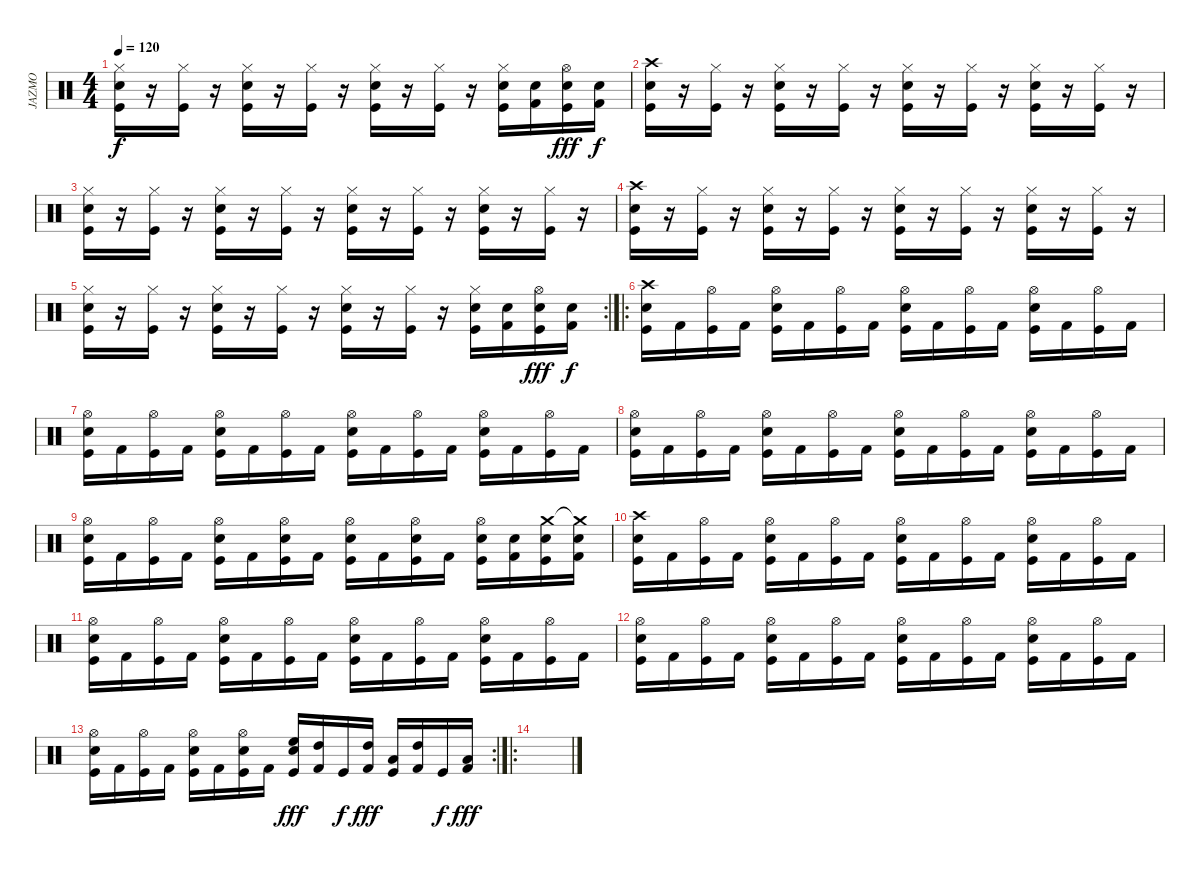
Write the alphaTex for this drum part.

\track ("JAZMO" "JAZMO") {instrument percussion}
\staff {score}
\articulation defaults
\ts (4 4)
\tempo 120
\clef neutral
\ks c
("Hi-Hat (closed)" "Electric Snare (hit)" "Kick (hit)").16{dy f} r.16 ("Hi-Hat (closed)" "Kick (hit)").16 r.16 ("Hi-Hat (closed)" "Electric Snare (hit)" "Kick (hit)").16 r.16 ("Hi-Hat (closed)" "Kick (hit)").16 r.16 ("Hi-Hat (closed)" "Electric Snare (hit)" "Kick (hit)").16 r.16 ("Hi-Hat (closed)" "Kick (hit)").16 r.16 ("Hi-Hat (closed)" "Electric Snare (hit)" "Kick (hit)").16 ("Electric Snare (hit)" "Kick (hit) 2").16 ("Hi-Hat (open)" "Electric Snare (hit)" "Kick (hit)").16{dy fff} ("Electric Snare (hit)" "Kick (hit) 2").16{dy f} |
("Crash high (hit)" "Electric Snare (hit)" "Kick (hit)").16 r.16 ("Hi-Hat (closed)" "Kick (hit)").16 r.16 ("Hi-Hat (closed)" "Electric Snare (hit)" "Kick (hit)").16 r.16 ("Hi-Hat (closed)" "Kick (hit)").16 r.16 ("Hi-Hat (closed)" "Electric Snare (hit)" "Kick (hit)").16 r.16 ("Hi-Hat (closed)" "Kick (hit)").16 r.16 ("Hi-Hat (closed)" "Electric Snare (hit)" "Kick (hit)").16 r.16 ("Hi-Hat (closed)" "Kick (hit)").16 r.16 |
("Hi-Hat (closed)" "Electric Snare (hit)" "Kick (hit)").16 r.16 ("Hi-Hat (closed)" "Kick (hit)").16 r.16 ("Hi-Hat (closed)" "Electric Snare (hit)" "Kick (hit)").16 r.16 ("Hi-Hat (closed)" "Kick (hit)").16 r.16 ("Hi-Hat (closed)" "Electric Snare (hit)" "Kick (hit)").16 r.16 ("Hi-Hat (closed)" "Kick (hit)").16 r.16 ("Hi-Hat (closed)" "Electric Snare (hit)" "Kick (hit)").16 r.16 ("Hi-Hat (closed)" "Kick (hit)").16 r.16 |
("Crash high (hit)" "Electric Snare (hit)" "Kick (hit)").16 r.16 ("Hi-Hat (closed)" "Kick (hit)").16 r.16 ("Hi-Hat (closed)" "Electric Snare (hit)" "Kick (hit)").16 r.16 ("Hi-Hat (closed)" "Kick (hit)").16 r.16 ("Hi-Hat (closed)" "Electric Snare (hit)" "Kick (hit)").16 r.16 ("Hi-Hat (closed)" "Kick (hit)").16 r.16 ("Hi-Hat (closed)" "Electric Snare (hit)" "Kick (hit)").16 r.16 ("Hi-Hat (closed)" "Kick (hit)").16 r.16 |
\rc 2
("Hi-Hat (closed)" "Electric Snare (hit)" "Kick (hit)").16 r.16 ("Hi-Hat (closed)" "Kick (hit)").16 r.16 ("Hi-Hat (closed)" "Electric Snare (hit)" "Kick (hit)").16 r.16 ("Hi-Hat (closed)" "Kick (hit)").16 r.16 ("Hi-Hat (closed)" "Electric Snare (hit)" "Kick (hit)").16 r.16 ("Hi-Hat (closed)" "Kick (hit)").16 r.16 ("Hi-Hat (closed)" "Electric Snare (hit)" "Kick (hit)").16 ("Electric Snare (hit)" "Kick (hit) 2").16 ("Hi-Hat (open)" "Electric Snare (hit)" "Kick (hit)").16{dy fff} ("Electric Snare (hit)" "Kick (hit) 2").16{dy f} |
\ro
("Crash high (hit)" "Electric Snare (hit)" "Kick (hit)").16 "Kick (hit) 2".16 ("Hi-Hat (open)" "Kick (hit)").16 "Kick (hit) 2".16 ("Hi-Hat (open)" "Electric Snare (hit)" "Kick (hit)").16 "Kick (hit) 2".16 ("Hi-Hat (open)" "Kick (hit)").16 "Kick (hit) 2".16 ("Hi-Hat (open)" "Electric Snare (hit)" "Kick (hit)").16 "Kick (hit) 2".16 ("Hi-Hat (open)" "Kick (hit)").16 "Kick (hit) 2".16 ("Hi-Hat (open)" "Electric Snare (hit)" "Kick (hit)").16 "Kick (hit) 2".16 ("Hi-Hat (open)" "Kick (hit)").16 "Kick (hit) 2".16 |
("Hi-Hat (open)" "Electric Snare (hit)" "Kick (hit)").16 "Kick (hit) 2".16 ("Hi-Hat (open)" "Kick (hit)").16 "Kick (hit) 2".16 ("Hi-Hat (open)" "Electric Snare (hit)" "Kick (hit)").16 "Kick (hit) 2".16 ("Hi-Hat (open)" "Kick (hit)").16 "Kick (hit) 2".16 ("Hi-Hat (open)" "Electric Snare (hit)" "Kick (hit)").16 "Kick (hit) 2".16 ("Hi-Hat (open)" "Kick (hit)").16 "Kick (hit) 2".16 ("Hi-Hat (open)" "Electric Snare (hit)" "Kick (hit)").16 "Kick (hit) 2".16 ("Hi-Hat (open)" "Kick (hit)").16 "Kick (hit) 2".16 |
("Hi-Hat (open)" "Electric Snare (hit)" "Kick (hit)").16 "Kick (hit) 2".16 ("Hi-Hat (open)" "Kick (hit)").16 "Kick (hit) 2".16 ("Hi-Hat (open)" "Electric Snare (hit)" "Kick (hit)").16 "Kick (hit) 2".16 ("Hi-Hat (open)" "Kick (hit)").16 "Kick (hit) 2".16 ("Hi-Hat (open)" "Electric Snare (hit)" "Kick (hit)").16 "Kick (hit) 2".16 ("Hi-Hat (open)" "Kick (hit)").16 "Kick (hit) 2".16 ("Hi-Hat (open)" "Electric Snare (hit)" "Kick (hit)").16 "Kick (hit) 2".16 ("Hi-Hat (open)" "Kick (hit)").16 "Kick (hit) 2".16 |
("Hi-Hat (open)" "Electric Snare (hit)" "Kick (hit)").16 "Kick (hit) 2".16 ("Hi-Hat (open)" "Kick (hit)").16 "Kick (hit) 2".16 ("Hi-Hat (open)" "Electric Snare (hit)" "Kick (hit)").16 "Kick (hit) 2".16 ("Hi-Hat (open)" "Electric Snare (hit)" "Kick (hit)").16 "Kick (hit) 2".16 ("Hi-Hat (open)" "Electric Snare (hit)" "Kick (hit)").16 "Kick (hit) 2".16 ("Hi-Hat (open)" "Electric Snare (hit)" "Kick (hit)").16 "Kick (hit) 2".16 ("Hi-Hat (open)" "Electric Snare (hit)" "Kick (hit)").16 ("Electric Snare (hit)" "Kick (hit) 2").16 ("Crash medium (hit)" "Electric Snare (hit)" "Kick (hit)").16 ("Crash medium (hit)"{t} "Electric Snare (hit)" "Kick (hit) 2").16 |
("Crash high (hit)" "Electric Snare (hit)" "Kick (hit)").16 "Kick (hit) 2".16 ("Hi-Hat (open)" "Kick (hit)").16 "Kick (hit) 2".16 ("Hi-Hat (open)" "Electric Snare (hit)" "Kick (hit)").16 "Kick (hit) 2".16 ("Hi-Hat (open)" "Kick (hit)").16 "Kick (hit) 2".16 ("Hi-Hat (open)" "Electric Snare (hit)" "Kick (hit)").16 "Kick (hit) 2".16 ("Hi-Hat (open)" "Kick (hit)").16 "Kick (hit) 2".16 ("Hi-Hat (open)" "Electric Snare (hit)" "Kick (hit)").16 "Kick (hit) 2".16 ("Hi-Hat (open)" "Kick (hit)").16 "Kick (hit) 2".16 |
("Hi-Hat (open)" "Electric Snare (hit)" "Kick (hit)").16 "Kick (hit) 2".16 ("Hi-Hat (open)" "Kick (hit)").16 "Kick (hit) 2".16 ("Hi-Hat (open)" "Electric Snare (hit)" "Kick (hit)").16 "Kick (hit) 2".16 ("Hi-Hat (open)" "Kick (hit)").16 "Kick (hit) 2".16 ("Hi-Hat (open)" "Electric Snare (hit)" "Kick (hit)").16 "Kick (hit) 2".16 ("Hi-Hat (open)" "Kick (hit)").16 "Kick (hit) 2".16 ("Hi-Hat (open)" "Electric Snare (hit)" "Kick (hit)").16 "Kick (hit) 2".16 ("Hi-Hat (open)" "Kick (hit)").16 "Kick (hit) 2".16 |
("Hi-Hat (open)" "Electric Snare (hit)" "Kick (hit)").16 "Kick (hit) 2".16 ("Hi-Hat (open)" "Kick (hit)").16 "Kick (hit) 2".16 ("Hi-Hat (open)" "Electric Snare (hit)" "Kick (hit)").16 "Kick (hit) 2".16 ("Hi-Hat (open)" "Kick (hit)").16 "Kick (hit) 2".16 ("Hi-Hat (open)" "Electric Snare (hit)" "Kick (hit)").16 "Kick (hit) 2".16 ("Hi-Hat (open)" "Kick (hit)").16 "Kick (hit) 2".16 ("Hi-Hat (open)" "Electric Snare (hit)" "Kick (hit)").16 "Kick (hit) 2".16 ("Hi-Hat (open)" "Kick (hit)").16 "Kick (hit) 2".16 |
\rc 2
("Hi-Hat (open)" "Electric Snare (hit)" "Kick (hit)").16 "Kick (hit) 2".16 ("Hi-Hat (open)" "Kick (hit)").16 "Kick (hit) 2".16 ("Hi-Hat (open)" "Electric Snare (hit)" "Kick (hit)").16 "Kick (hit) 2".16 ("Hi-Hat (open)" "Electric Snare (hit)" "Kick (hit)").16 "Kick (hit) 2".16 ("High Floor Tom (hit)" "Electric Snare (hit)" "Kick (hit)").16{dy fff} ("High Tom (hit)" "Kick (hit) 2").16 "Kick (hit)".16{dy f} ("High Tom (hit)" "Kick (hit) 2").16{dy fff} ("Low Tom (hit)" "Kick (hit)").16 ("High Tom (hit)" "Kick (hit) 2").16 "Kick (hit)".16{dy f} ("Low Floor Tom (hit)" "Kick (hit) 2").16{dy fff} |
\ro
